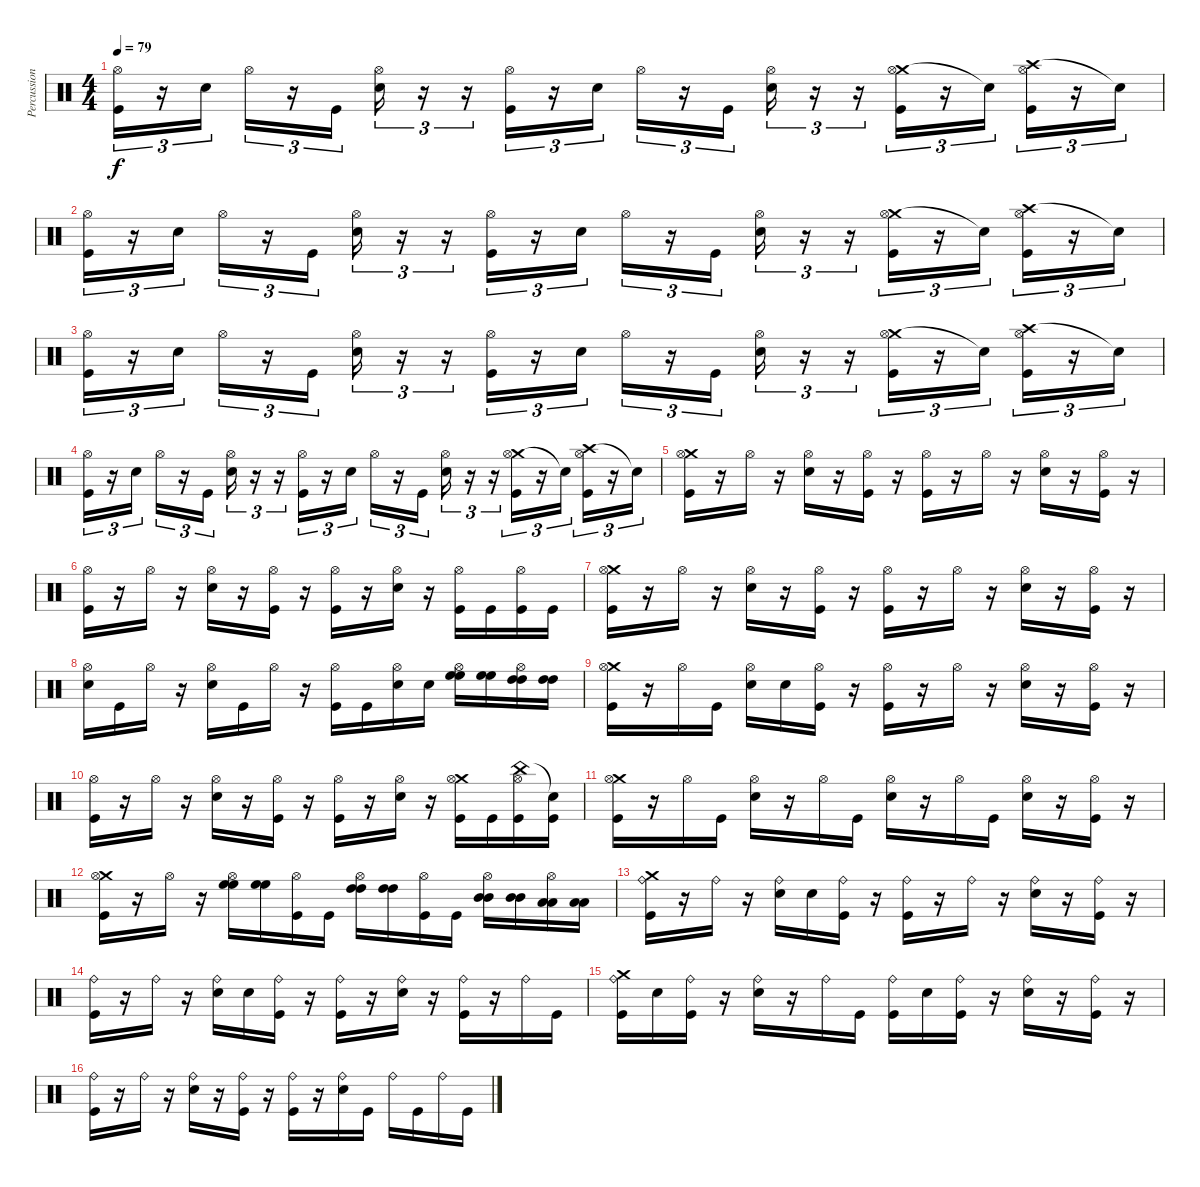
\track ("Percussion" "Percussion") {instrument percussion}
\staff {score}
\articulation defaults
\ts (4 4)
\tempo 79
\clef neutral
\ks c
("Hi-Hat (open)" "Kick (hit)").16{tu (3 2) dy f} r.16{tu (3 2)} "Electric Snare (hit)".16{tu (3 2)} "Hi-Hat (open)".16{tu (3 2)} r.16{tu (3 2)} "Kick (hit)".16{tu (3 2)} ("Hi-Hat (open)" "Electric Snare (hit)").16{tu (3 2)} r.16{tu (3 2)} r.16{tu (3 2)} ("Hi-Hat (open)" "Kick (hit)").16{tu (3 2)} r.16{tu (3 2)} "Electric Snare (hit)".16{tu (3 2)} "Hi-Hat (open)".16{tu (3 2)} r.16{tu (3 2)} "Kick (hit)".16{tu (3 2)} ("Hi-Hat (open)" "Electric Snare (hit)").16{tu (3 2)} r.16{tu (3 2)} r.16{tu (3 2)} ("Crash medium (hit)" "Hi-Hat (open)" "Kick (hit)").16{tu (3 2)} r.16{tu (3 2)} "Snare (hit)"{t}.16{tu (3 2)} ("Crash high (hit)" "Hi-Hat (open)" "Kick (hit)").16{tu (3 2)} r.16{tu (3 2)} "Snare (hit)"{t}.16{tu (3 2)} |
("Hi-Hat (open)" "Kick (hit)").16{tu (3 2)} r.16{tu (3 2)} "Electric Snare (hit)".16{tu (3 2)} "Hi-Hat (open)".16{tu (3 2)} r.16{tu (3 2)} "Kick (hit)".16{tu (3 2)} ("Hi-Hat (open)" "Electric Snare (hit)").16{tu (3 2)} r.16{tu (3 2)} r.16{tu (3 2)} ("Hi-Hat (open)" "Kick (hit)").16{tu (3 2)} r.16{tu (3 2)} "Electric Snare (hit)".16{tu (3 2)} "Hi-Hat (open)".16{tu (3 2)} r.16{tu (3 2)} "Kick (hit)".16{tu (3 2)} ("Hi-Hat (open)" "Electric Snare (hit)").16{tu (3 2)} r.16{tu (3 2)} r.16{tu (3 2)} ("Crash medium (hit)" "Hi-Hat (open)" "Kick (hit)").16{tu (3 2)} r.16{tu (3 2)} "Snare (hit)"{t}.16{tu (3 2)} ("Crash high (hit)" "Hi-Hat (open)" "Kick (hit)").16{tu (3 2)} r.16{tu (3 2)} "Snare (hit)"{t}.16{tu (3 2)} |
("Hi-Hat (open)" "Kick (hit)").16{tu (3 2)} r.16{tu (3 2)} "Electric Snare (hit)".16{tu (3 2)} "Hi-Hat (open)".16{tu (3 2)} r.16{tu (3 2)} "Kick (hit)".16{tu (3 2)} ("Hi-Hat (open)" "Electric Snare (hit)").16{tu (3 2)} r.16{tu (3 2)} r.16{tu (3 2)} ("Hi-Hat (open)" "Kick (hit)").16{tu (3 2)} r.16{tu (3 2)} "Electric Snare (hit)".16{tu (3 2)} "Hi-Hat (open)".16{tu (3 2)} r.16{tu (3 2)} "Kick (hit)".16{tu (3 2)} ("Hi-Hat (open)" "Electric Snare (hit)").16{tu (3 2)} r.16{tu (3 2)} r.16{tu (3 2)} ("Crash medium (hit)" "Hi-Hat (open)" "Kick (hit)").16{tu (3 2)} r.16{tu (3 2)} "Snare (hit)"{t}.16{tu (3 2)} ("Crash high (hit)" "Hi-Hat (open)" "Kick (hit)").16{tu (3 2)} r.16{tu (3 2)} "Snare (hit)"{t}.16{tu (3 2)} |
("Hi-Hat (open)" "Kick (hit)").16{tu (3 2)} r.16{tu (3 2)} "Electric Snare (hit)".16{tu (3 2)} "Hi-Hat (open)".16{tu (3 2)} r.16{tu (3 2)} "Kick (hit)".16{tu (3 2)} ("Hi-Hat (open)" "Electric Snare (hit)").16{tu (3 2)} r.16{tu (3 2)} r.16{tu (3 2)} ("Hi-Hat (open)" "Kick (hit)").16{tu (3 2)} r.16{tu (3 2)} "Electric Snare (hit)".16{tu (3 2)} "Hi-Hat (open)".16{tu (3 2)} r.16{tu (3 2)} "Kick (hit)".16{tu (3 2)} ("Hi-Hat (open)" "Electric Snare (hit)").16{tu (3 2)} r.16{tu (3 2)} r.16{tu (3 2)} ("Crash medium (hit)" "Hi-Hat (open)" "Kick (hit)").16{tu (3 2)} r.16{tu (3 2)} "Snare (hit)"{t}.16{tu (3 2)} ("Crash high (hit)" "Hi-Hat (open)" "Kick (hit)").16{tu (3 2)} r.16{tu (3 2)} "Snare (hit)"{t}.16{tu (3 2)} |
("Crash medium (hit)" "Hi-Hat (open)" "Kick (hit)").16 r.16 "Hi-Hat (open)".16 r.16 ("Hi-Hat (open)" "Electric Snare (hit)").16 r.16 ("Hi-Hat (open)" "Kick (hit)").16 r.16 ("Hi-Hat (open)" "Kick (hit)").16 r.16 "Hi-Hat (open)".16 r.16 ("Hi-Hat (open)" "Electric Snare (hit)").16 r.16 ("Hi-Hat (open)" "Kick (hit)").16 r.16 |
("Hi-Hat (open)" "Kick (hit)").16 r.16 "Hi-Hat (open)".16 r.16 ("Hi-Hat (open)" "Electric Snare (hit)").16 r.16 ("Hi-Hat (open)" "Kick (hit)").16 r.16 ("Hi-Hat (open)" "Kick (hit)").16 r.16 ("Hi-Hat (open)" "Electric Snare (hit)").16 r.16 ("Hi-Hat (open)" "Kick (hit)").16 "Kick (hit)".16 ("Hi-Hat (open)" "Kick (hit)").16 "Kick (hit)".16 |
("Crash medium (hit)" "Hi-Hat (open)" "Kick (hit)").16 r.16 "Hi-Hat (open)".16 r.16 ("Hi-Hat (open)" "Electric Snare (hit)").16 r.16 ("Hi-Hat (open)" "Kick (hit)").16 r.16 ("Hi-Hat (open)" "Kick (hit)").16 r.16 "Hi-Hat (open)".16 r.16 ("Hi-Hat (open)" "Electric Snare (hit)").16 r.16 ("Hi-Hat (open)" "Kick (hit)").16 r.16 |
("Hi-Hat (open)" "Electric Snare (hit)").16 "Kick (hit)".16 "Hi-Hat (open)".16 r.16 ("Hi-Hat (open)" "Electric Snare (hit)").16 "Kick (hit)".16 "Hi-Hat (open)".16 r.16 ("Hi-Hat (open)" "Kick (hit)").16 "Kick (hit)".16 ("Hi-Hat (open)" "Electric Snare (hit)").16 "Electric Snare (hit)".16 ("Hi-Hat (open)" "High Floor Tom (hit)" "High Floor Tom (hit)").16 ("High Floor Tom (hit)" "High Floor Tom (hit)").16 ("Hi-Hat (open)" "High Tom (hit)" "High Tom (hit)").16 ("High Tom (hit)" "High Tom (hit)").16 |
("Crash medium (hit)" "Hi-Hat (open)" "Kick (hit)").16 r.16 "Hi-Hat (open)".16 "Kick (hit)".16 ("Hi-Hat (open)" "Electric Snare (hit)").16 "Electric Snare (hit)".16 ("Hi-Hat (open)" "Kick (hit)").16 r.16 ("Hi-Hat (open)" "Kick (hit)").16 r.16 "Hi-Hat (open)".16 r.16 ("Hi-Hat (open)" "Electric Snare (hit)").16 r.16 ("Hi-Hat (open)" "Kick (hit)").16 r.16 |
("Hi-Hat (open)" "Kick (hit)").16 r.16 "Hi-Hat (open)".16 r.16 ("Hi-Hat (open)" "Electric Snare (hit)").16 r.16 ("Hi-Hat (open)" "Kick (hit)").16 r.16 ("Hi-Hat (open)" "Kick (hit)").16 r.16 ("Hi-Hat (open)" "Electric Snare (hit)").16 r.16 ("Crash medium (hit)" "Hi-Hat (open)" "Kick (hit)").16 "Kick (hit)".16 ("China (hit)" "Hi-Hat (open)" "Kick (hit)").16 ("Snare (hit)"{t} "Kick (hit)").16 |
("Crash medium (hit)" "Hi-Hat (open)" "Kick (hit)").16 r.16 "Hi-Hat (open)".16 "Kick (hit)".16 ("Hi-Hat (open)" "Electric Snare (hit)").16 r.16 "Hi-Hat (open)".16 "Kick (hit)".16 ("Hi-Hat (open)" "Electric Snare (hit)").16 r.16 "Hi-Hat (open)".16 "Kick (hit)".16 ("Hi-Hat (open)" "Electric Snare (hit)").16 r.16 ("Hi-Hat (open)" "Kick (hit)").16 r.16 |
("Crash medium (hit)" "Hi-Hat (open)" "Kick (hit)").16 r.16 "Hi-Hat (open)".16 r.16 ("Hi-Hat (open)" "High Floor Tom (hit)" "High Floor Tom (hit)").16 ("High Floor Tom (hit)" "High Floor Tom (hit)").16 ("Hi-Hat (open)" "Kick (hit)").16 "Kick (hit)".16 ("Hi-Hat (open)" "High Tom (hit)" "High Tom (hit)").16 ("High Tom (hit)" "High Tom (hit)").16 ("Hi-Hat (open)" "Kick (hit)").16 "Kick (hit)".16 ("Hi-Hat (open)" "Mid Tom (hit)" "Mid Tom (hit)").16 ("Mid Tom (hit)" "Mid Tom (hit)").16 ("Hi-Hat (open)" "Low Tom (hit)" "Low Tom (hit)").16 ("Low Tom (hit)" "Low Tom (hit)").16 |
("Crash medium (hit)" "Ride (bell)" "Kick (hit)").16 r.16 "Ride (bell)".16 r.16 ("Ride (bell)" "Electric Snare (hit)").16 "Electric Snare (hit)".16 ("Ride (bell)" "Kick (hit)").16 r.16 ("Ride (bell)" "Kick (hit)").16 r.16 "Ride (bell)".16 r.16 ("Ride (bell)" "Electric Snare (hit)").16 r.16 ("Ride (bell)" "Kick (hit)").16 r.16 |
("Ride (bell)" "Kick (hit)").16 r.16 "Ride (bell)".16 r.16 ("Ride (bell)" "Electric Snare (hit)").16 "Electric Snare (hit)".16 ("Ride (bell)" "Kick (hit)").16 r.16 ("Ride (bell)" "Kick (hit)").16 r.16 ("Ride (bell)" "Electric Snare (hit)").16 r.16 ("Ride (bell)" "Kick (hit)").16 r.16 "Ride (bell)".16 "Kick (hit)".16 |
("Crash medium (hit)" "Ride (bell)" "Kick (hit)").16 "Electric Snare (hit)".16 ("Ride (bell)" "Kick (hit)").16 r.16 ("Ride (bell)" "Electric Snare (hit)").16 r.16 "Ride (bell)".16 "Kick (hit)".16 ("Ride (bell)" "Kick (hit)").16 "Electric Snare (hit)".16 ("Ride (bell)" "Kick (hit)").16 r.16 ("Ride (bell)" "Electric Snare (hit)").16 r.16 ("Ride (bell)" "Kick (hit)").16 r.16 |
("Ride (bell)" "Kick (hit)").16 r.16 "Ride (bell)".16 r.16 ("Ride (bell)" "Electric Snare (hit)").16 r.16 ("Ride (bell)" "Kick (hit)").16 r.16 ("Ride (bell)" "Kick (hit)").16 r.16 ("Ride (bell)" "Electric Snare (hit)").16 "Kick (hit)".16 "Ride (bell)".16 "Kick (hit)".16 "Ride (bell)".16 "Kick (hit)".16
